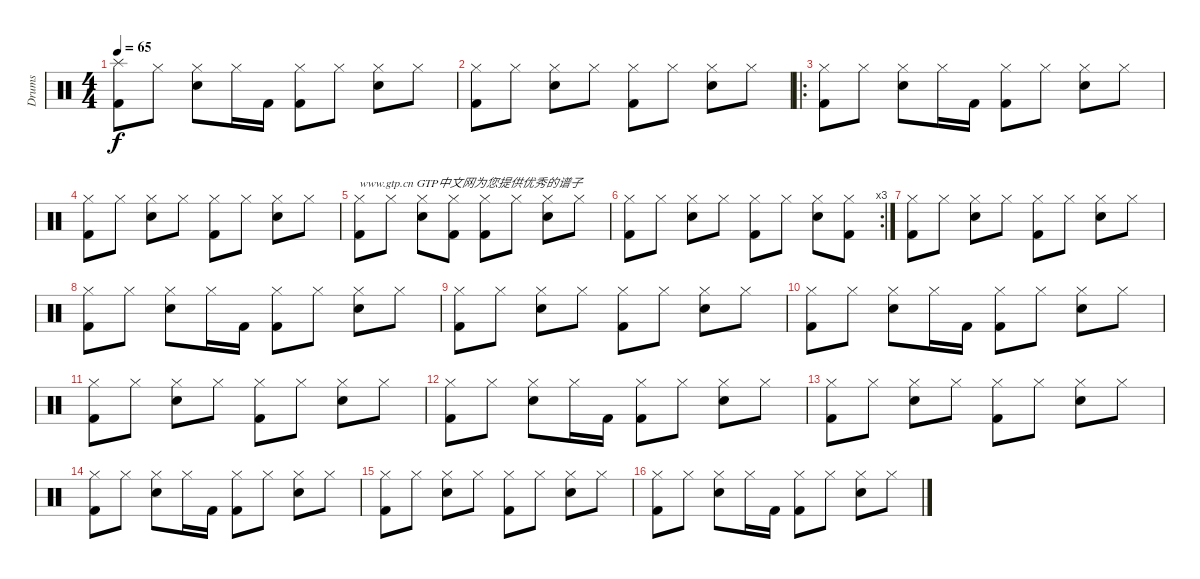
\track ("Drums" "Drums") {instrument percussion}
\staff {score}
\articulation defaults
\ts (4 4)
\tempo 65
\clef neutral
\ks c
("Splash (hit)" "Kick (hit) 2").8{dy f} "Hi-Hat (closed)".8 ("Hi-Hat (closed)" "Snare (hit) 2").8 "Hi-Hat (closed)".16 "Kick (hit) 2".16 ("Hi-Hat (closed)" "Kick (hit) 2").8 "Hi-Hat (closed)".8 ("Hi-Hat (closed)" "Snare (hit) 2").8 "Hi-Hat (closed)".8 |
("Hi-Hat (closed)" "Kick (hit) 2").8 "Hi-Hat (closed)".8 ("Hi-Hat (closed)" "Snare (hit) 2").8 "Hi-Hat (closed)".8 ("Hi-Hat (closed)" "Kick (hit) 2").8 "Hi-Hat (closed)".8 ("Hi-Hat (closed)" "Snare (hit) 2").8 "Hi-Hat (closed)".8 |
\ro
("Hi-Hat (closed)" "Kick (hit) 2").8 "Hi-Hat (closed)".8 ("Hi-Hat (closed)" "Snare (hit) 2").8 "Hi-Hat (closed)".16 "Kick (hit) 2".16 ("Hi-Hat (closed)" "Kick (hit) 2").8 "Hi-Hat (closed)".8 ("Hi-Hat (closed)" "Snare (hit) 2").8 "Hi-Hat (closed)".8 |
("Hi-Hat (closed)" "Kick (hit) 2").8 "Hi-Hat (closed)".8 ("Hi-Hat (closed)" "Snare (hit) 2").8 "Hi-Hat (closed)".8 ("Hi-Hat (closed)" "Kick (hit) 2").8 "Hi-Hat (closed)".8 ("Hi-Hat (closed)" "Snare (hit) 2").8 "Hi-Hat (closed)".8 |
("Hi-Hat (closed)" "Kick (hit) 2").8{txt "www.gtp.cn GTP中文网为您提供优秀的谱子"} "Hi-Hat (closed)".8 ("Hi-Hat (closed)" "Snare (hit) 2").8 ("Hi-Hat (closed)" "Kick (hit) 2").8 ("Hi-Hat (closed)" "Kick (hit) 2").8 "Hi-Hat (closed)".8 ("Hi-Hat (closed)" "Snare (hit) 2").8 "Hi-Hat (closed)".8 |
\rc 3
("Hi-Hat (closed)" "Kick (hit) 2").8 "Hi-Hat (closed)".8 ("Hi-Hat (closed)" "Snare (hit) 2").8 "Hi-Hat (closed)".8 ("Hi-Hat (closed)" "Kick (hit) 2").8 "Hi-Hat (closed)".8 ("Hi-Hat (closed)" "Snare (hit) 2").8 ("Hi-Hat (closed)" "Kick (hit) 2").8 |
("Hi-Hat (closed)" "Kick (hit) 2").8 "Hi-Hat (closed)".8 ("Hi-Hat (closed)" "Snare (hit) 2").8 "Hi-Hat (closed)".8 ("Hi-Hat (closed)" "Kick (hit) 2").8 "Hi-Hat (closed)".8 ("Hi-Hat (closed)" "Snare (hit) 2").8 "Hi-Hat (closed)".8 |
("Hi-Hat (closed)" "Kick (hit) 2").8 "Hi-Hat (closed)".8 ("Hi-Hat (closed)" "Snare (hit) 2").8 "Hi-Hat (closed)".16 "Kick (hit) 2".16 ("Hi-Hat (closed)" "Kick (hit) 2").8 "Hi-Hat (closed)".8 ("Hi-Hat (closed)" "Snare (hit) 2").8 "Hi-Hat (closed)".8 |
("Hi-Hat (closed)" "Kick (hit) 2").8 "Hi-Hat (closed)".8 ("Hi-Hat (closed)" "Snare (hit) 2").8 "Hi-Hat (closed)".8 ("Hi-Hat (closed)" "Kick (hit) 2").8 "Hi-Hat (closed)".8 ("Hi-Hat (closed)" "Snare (hit) 2").8 "Hi-Hat (closed)".8 |
("Hi-Hat (closed)" "Kick (hit) 2").8 "Hi-Hat (closed)".8 ("Hi-Hat (closed)" "Snare (hit) 2").8 "Hi-Hat (closed)".16 "Kick (hit) 2".16 ("Hi-Hat (closed)" "Kick (hit) 2").8 "Hi-Hat (closed)".8 ("Hi-Hat (closed)" "Snare (hit) 2").8 "Hi-Hat (closed)".8 |
("Hi-Hat (closed)" "Kick (hit) 2").8 "Hi-Hat (closed)".8 ("Hi-Hat (closed)" "Snare (hit) 2").8 "Hi-Hat (closed)".8 ("Hi-Hat (closed)" "Kick (hit) 2").8 "Hi-Hat (closed)".8 ("Hi-Hat (closed)" "Snare (hit) 2").8 "Hi-Hat (closed)".8 |
("Hi-Hat (closed)" "Kick (hit) 2").8 "Hi-Hat (closed)".8 ("Hi-Hat (closed)" "Snare (hit) 2").8 "Hi-Hat (closed)".16 "Kick (hit) 2".16 ("Hi-Hat (closed)" "Kick (hit) 2").8 "Hi-Hat (closed)".8 ("Hi-Hat (closed)" "Snare (hit) 2").8 "Hi-Hat (closed)".8 |
("Hi-Hat (closed)" "Kick (hit) 2").8 "Hi-Hat (closed)".8 ("Hi-Hat (closed)" "Snare (hit) 2").8 "Hi-Hat (closed)".8 ("Hi-Hat (closed)" "Kick (hit) 2").8 "Hi-Hat (closed)".8 ("Hi-Hat (closed)" "Snare (hit) 2").8 "Hi-Hat (closed)".8 |
("Hi-Hat (closed)" "Kick (hit) 2").8 "Hi-Hat (closed)".8 ("Hi-Hat (closed)" "Snare (hit) 2").8 "Hi-Hat (closed)".16 "Kick (hit) 2".16 ("Hi-Hat (closed)" "Kick (hit) 2").8 "Hi-Hat (closed)".8 ("Hi-Hat (closed)" "Snare (hit) 2").8 "Hi-Hat (closed)".8 |
("Hi-Hat (closed)" "Kick (hit) 2").8 "Hi-Hat (closed)".8 ("Hi-Hat (closed)" "Snare (hit) 2").8 "Hi-Hat (closed)".8 ("Hi-Hat (closed)" "Kick (hit) 2").8 "Hi-Hat (closed)".8 ("Hi-Hat (closed)" "Snare (hit) 2").8 "Hi-Hat (closed)".8 |
("Hi-Hat (closed)" "Kick (hit) 2").8 "Hi-Hat (closed)".8 ("Hi-Hat (closed)" "Snare (hit) 2").8 "Hi-Hat (closed)".16 "Kick (hit) 2".16 ("Hi-Hat (closed)" "Kick (hit) 2").8 "Hi-Hat (closed)".8 ("Hi-Hat (closed)" "Snare (hit) 2").8 "Hi-Hat (closed)".8
